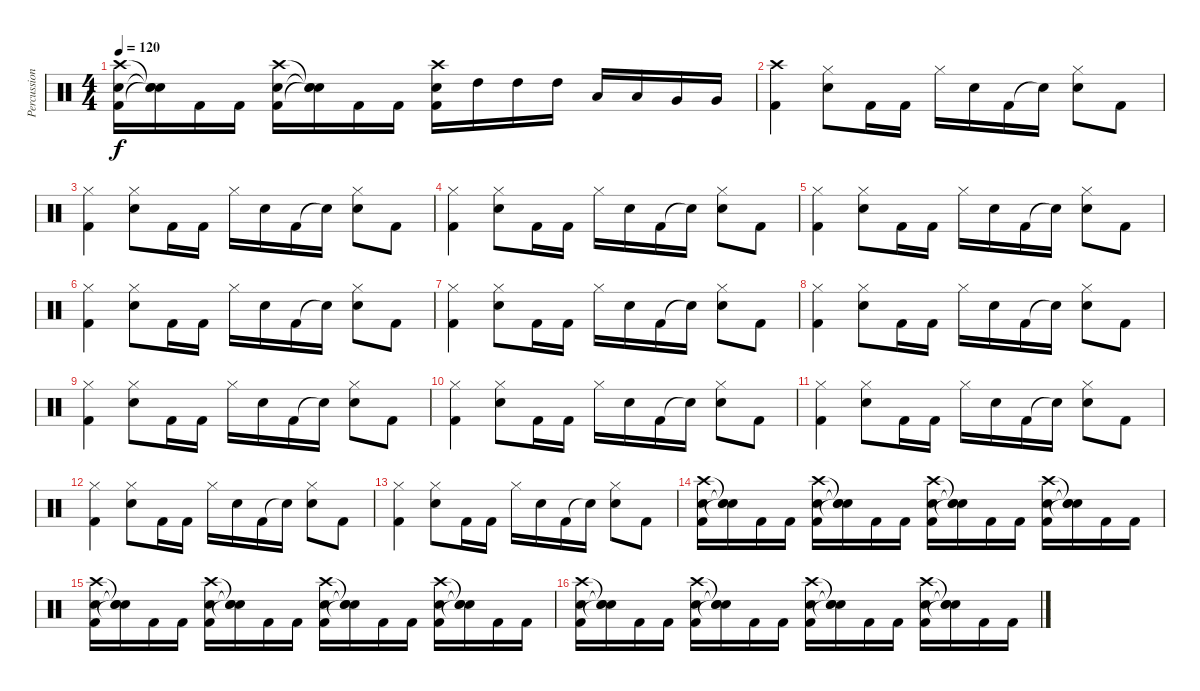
\track ("Percussions" "Percussion") {instrument percussion}
\staff {score}
\articulation defaults
\ts (4 4)
\tempo 120
\clef neutral
\ks c
("Kick (hit) 2" "Electric Snare (hit)" "Crash high (hit)").16{dy f} ("Snare (hit)"{t} "Snare (hit)"{t} "Snare (hit)"{t}).16 "Kick (hit) 2".16 "Kick (hit) 2".16 ("Kick (hit) 2" "Electric Snare (hit)" "Crash high (hit)").16 ("Snare (hit)"{t} "Snare (hit)"{t} "Snare (hit)"{t}).16 "Kick (hit) 2".16 "Kick (hit) 2".16 ("Kick (hit) 2" "Electric Snare (hit)" "Crash high (hit)").16 "High Tom (hit)".16 "High Tom (hit)".16 "High Tom (hit)".16 "Low Tom (hit)".16 "Low Tom (hit)".16 "Very Low Tom (hit)".16 "Very Low Tom (hit)".16 |
("Kick (hit) 2" "Crash high (hit)").4 ("Electric Snare (hit)" "Hi-Hat (closed)").8 "Kick (hit) 2".16 "Kick (hit) 2".16 "Hi-Hat (closed)".16 "Electric Snare (hit)".16 "Kick (hit) 2".16 "Snare (hit)"{t}.16 ("Electric Snare (hit)" "Hi-Hat (closed)").8 "Kick (hit) 2".8 |
("Kick (hit) 2" "Hi-Hat (closed)").4 ("Electric Snare (hit)" "Hi-Hat (closed)").8 "Kick (hit) 2".16 "Kick (hit) 2".16 "Hi-Hat (closed)".16 "Electric Snare (hit)".16 "Kick (hit) 2".16 "Snare (hit)"{t}.16 ("Electric Snare (hit)" "Hi-Hat (closed)").8 "Kick (hit) 2".8 |
("Kick (hit) 2" "Hi-Hat (closed)").4 ("Electric Snare (hit)" "Hi-Hat (closed)").8 "Kick (hit) 2".16 "Kick (hit) 2".16 "Hi-Hat (closed)".16 "Electric Snare (hit)".16 "Kick (hit) 2".16 "Snare (hit)"{t}.16 ("Electric Snare (hit)" "Hi-Hat (closed)").8 "Kick (hit) 2".8 |
("Kick (hit) 2" "Hi-Hat (closed)").4 ("Electric Snare (hit)" "Hi-Hat (closed)").8 "Kick (hit) 2".16 "Kick (hit) 2".16 "Hi-Hat (closed)".16 "Electric Snare (hit)".16 "Kick (hit) 2".16 "Snare (hit)"{t}.16 ("Electric Snare (hit)" "Hi-Hat (closed)").8 "Kick (hit) 2".8 |
("Kick (hit) 2" "Hi-Hat (closed)").4 ("Electric Snare (hit)" "Hi-Hat (closed)").8 "Kick (hit) 2".16 "Kick (hit) 2".16 "Hi-Hat (closed)".16 "Electric Snare (hit)".16 "Kick (hit) 2".16 "Snare (hit)"{t}.16 ("Electric Snare (hit)" "Hi-Hat (closed)").8 "Kick (hit) 2".8 |
("Kick (hit) 2" "Hi-Hat (closed)").4 ("Electric Snare (hit)" "Hi-Hat (closed)").8 "Kick (hit) 2".16 "Kick (hit) 2".16 "Hi-Hat (closed)".16 "Electric Snare (hit)".16 "Kick (hit) 2".16 "Snare (hit)"{t}.16 ("Electric Snare (hit)" "Hi-Hat (closed)").8 "Kick (hit) 2".8 |
("Kick (hit) 2" "Hi-Hat (closed)").4 ("Electric Snare (hit)" "Hi-Hat (closed)").8 "Kick (hit) 2".16 "Kick (hit) 2".16 "Hi-Hat (closed)".16 "Electric Snare (hit)".16 "Kick (hit) 2".16 "Snare (hit)"{t}.16 ("Electric Snare (hit)" "Hi-Hat (closed)").8 "Kick (hit) 2".8 |
("Kick (hit) 2" "Hi-Hat (closed)").4 ("Electric Snare (hit)" "Hi-Hat (closed)").8 "Kick (hit) 2".16 "Kick (hit) 2".16 "Hi-Hat (closed)".16 "Electric Snare (hit)".16 "Kick (hit) 2".16 "Snare (hit)"{t}.16 ("Electric Snare (hit)" "Hi-Hat (closed)").8 "Kick (hit) 2".8 |
("Kick (hit) 2" "Hi-Hat (closed)").4 ("Electric Snare (hit)" "Hi-Hat (closed)").8 "Kick (hit) 2".16 "Kick (hit) 2".16 "Hi-Hat (closed)".16 "Electric Snare (hit)".16 "Kick (hit) 2".16 "Snare (hit)"{t}.16 ("Electric Snare (hit)" "Hi-Hat (closed)").8 "Kick (hit) 2".8 |
("Kick (hit) 2" "Hi-Hat (closed)").4 ("Electric Snare (hit)" "Hi-Hat (closed)").8 "Kick (hit) 2".16 "Kick (hit) 2".16 "Hi-Hat (closed)".16 "Electric Snare (hit)".16 "Kick (hit) 2".16 "Snare (hit)"{t}.16 ("Electric Snare (hit)" "Hi-Hat (closed)").8 "Kick (hit) 2".8 |
("Kick (hit) 2" "Hi-Hat (closed)").4 ("Electric Snare (hit)" "Hi-Hat (closed)").8 "Kick (hit) 2".16 "Kick (hit) 2".16 "Hi-Hat (closed)".16 "Electric Snare (hit)".16 "Kick (hit) 2".16 "Snare (hit)"{t}.16 ("Electric Snare (hit)" "Hi-Hat (closed)").8 "Kick (hit) 2".8 |
("Kick (hit) 2" "Hi-Hat (closed)").4 ("Electric Snare (hit)" "Hi-Hat (closed)").8 "Kick (hit) 2".16 "Kick (hit) 2".16 "Hi-Hat (closed)".16 "Electric Snare (hit)".16 "Kick (hit) 2".16 "Snare (hit)"{t}.16 ("Electric Snare (hit)" "Hi-Hat (closed)").8 "Kick (hit) 2".8 |
("Kick (hit) 2" "Electric Snare (hit)" "Crash high (hit)").16 ("Snare (hit)"{t} "Snare (hit)"{t} "Snare (hit)"{t}).16 "Kick (hit) 2".16 "Kick (hit) 2".16 ("Kick (hit) 2" "Electric Snare (hit)" "Crash high (hit)").16 ("Snare (hit)"{t} "Snare (hit)"{t} "Snare (hit)"{t}).16 "Kick (hit) 2".16 "Kick (hit) 2".16 ("Kick (hit) 2" "Electric Snare (hit)" "Crash high (hit)").16 ("Snare (hit)"{t} "Snare (hit)"{t} "Snare (hit)"{t}).16 "Kick (hit) 2".16 "Kick (hit) 2".16 ("Kick (hit) 2" "Electric Snare (hit)" "Crash high (hit)").16 ("Snare (hit)"{t} "Snare (hit)"{t} "Snare (hit)"{t}).16 "Kick (hit) 2".16 "Kick (hit) 2".16 |
("Kick (hit) 2" "Electric Snare (hit)" "Crash high (hit)").16 ("Snare (hit)"{t} "Snare (hit)"{t} "Snare (hit)"{t}).16 "Kick (hit) 2".16 "Kick (hit) 2".16 ("Kick (hit) 2" "Electric Snare (hit)" "Crash high (hit)").16 ("Snare (hit)"{t} "Snare (hit)"{t} "Snare (hit)"{t}).16 "Kick (hit) 2".16 "Kick (hit) 2".16 ("Kick (hit) 2" "Electric Snare (hit)" "Crash high (hit)").16 ("Snare (hit)"{t} "Snare (hit)"{t} "Snare (hit)"{t}).16 "Kick (hit) 2".16 "Kick (hit) 2".16 ("Kick (hit) 2" "Electric Snare (hit)" "Crash high (hit)").16 ("Snare (hit)"{t} "Snare (hit)"{t} "Snare (hit)"{t}).16 "Kick (hit) 2".16 "Kick (hit) 2".16 |
("Kick (hit) 2" "Electric Snare (hit)" "Crash high (hit)").16 ("Snare (hit)"{t} "Snare (hit)"{t} "Snare (hit)"{t}).16 "Kick (hit) 2".16 "Kick (hit) 2".16 ("Kick (hit) 2" "Electric Snare (hit)" "Crash high (hit)").16 ("Snare (hit)"{t} "Snare (hit)"{t} "Snare (hit)"{t}).16 "Kick (hit) 2".16 "Kick (hit) 2".16 ("Kick (hit) 2" "Electric Snare (hit)" "Crash high (hit)").16 ("Snare (hit)"{t} "Snare (hit)"{t} "Snare (hit)"{t}).16 "Kick (hit) 2".16 "Kick (hit) 2".16 ("Kick (hit) 2" "Electric Snare (hit)" "Crash high (hit)").16 ("Snare (hit)"{t} "Snare (hit)"{t} "Snare (hit)"{t}).16 "Kick (hit) 2".16 "Kick (hit) 2".16
